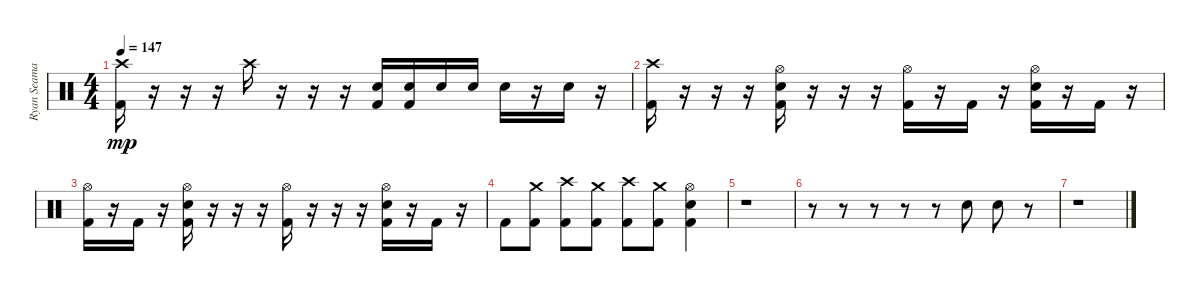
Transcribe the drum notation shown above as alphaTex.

\track ("Ryan Seaman - Drum" "Ryan Seama") {instrument percussion}
\staff {score}
\articulation defaults
\ts (4 4)
\tempo 147
\clef neutral
\ks c
("Crash high (hit)" "Kick (hit) 2").16{dy mp} r.16 r.16 r.16 "Crash high (hit)".16 r.16 r.16 r.16 ("Electric Snare (hit)" "Kick (hit) 2").16 ("Electric Snare (hit)" "Kick (hit) 2").16 "Electric Snare (hit)".16 "Electric Snare (hit)".16 "Electric Snare (hit)".16 r.16 "Electric Snare (hit)".16 r.16 |
("Crash high (hit)" "Kick (hit) 2").16 r.16 r.16 r.16 ("Hi-Hat (open)" "Electric Snare (hit)" "Kick (hit) 2").16 r.16 r.16 r.16 ("Hi-Hat (open)" "Kick (hit) 2").16 r.16 "Kick (hit) 2".16 r.16 ("Hi-Hat (open)" "Electric Snare (hit)" "Kick (hit) 2").16 r.16 "Kick (hit) 2".16 r.16 |
("Hi-Hat (open)" "Kick (hit) 2").16 r.16 "Kick (hit) 2".16 r.16 ("Hi-Hat (open)" "Electric Snare (hit)" "Kick (hit) 2").16 r.16 r.16 r.16 ("Hi-Hat (open)" "Kick (hit) 2").16 r.16 r.16 r.16 ("Hi-Hat (open)" "Electric Snare (hit)" "Kick (hit) 2").16 r.16 "Kick (hit) 2".16 r.16 |
"Kick (hit) 2".8 ("Crash medium (hit)" "Kick (hit) 2").8 ("Crash high (hit)" "Kick (hit) 2").8 ("Crash medium (hit)" "Kick (hit) 2").8 ("Crash high (hit)" "Kick (hit) 2").8 ("Crash medium (hit)" "Kick (hit) 2").8 ("Hi-Hat (open)" "Electric Snare (hit)" "Kick (hit) 2").4 |
r.1 |
r.8 r.8 r.8 r.8 r.8 "Hand Clap (hit)".8 "Hand Clap (hit)".8 r.8 |
r.1
